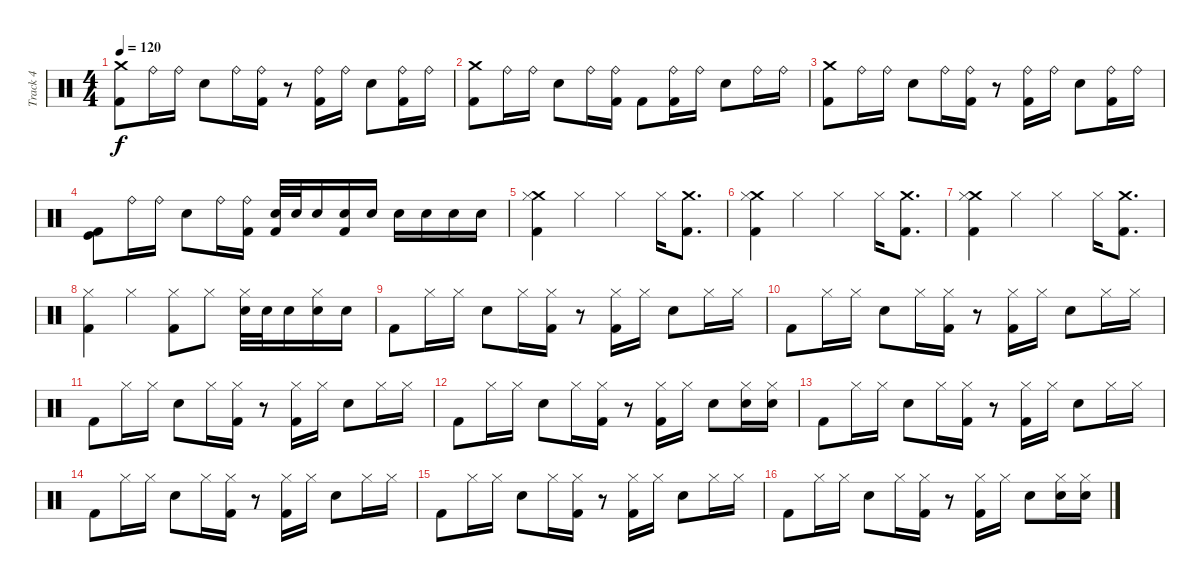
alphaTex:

\track ("Track 4" "Track 4") {instrument percussion}
\staff {score}
\articulation defaults
\ts (4 4)
\tempo 120
\clef neutral
\ks c
("Crash medium (hit)" "Kick (hit) 2").8{dy f} "Ride (bell)".16 "Ride (bell)".16 "Electric Snare (hit)".8 "Ride (bell)".16 ("Ride (bell)" "Kick (hit) 2").16 r.8 ("Ride (bell)" "Kick (hit) 2").16 "Ride (bell)".16 "Electric Snare (hit)".8 ("Ride (bell)" "Kick (hit) 2").16 "Ride (bell)".16 |
("Crash medium (hit)" "Kick (hit) 2").8 "Ride (bell)".16 "Ride (bell)".16 "Electric Snare (hit)".8 "Ride (bell)".16 ("Ride (bell)" "Kick (hit) 2").16 "Kick (hit) 2".8 ("Ride (bell)" "Kick (hit) 2").16 "Ride (bell)".16 "Electric Snare (hit)".8 "Ride (bell)".16 "Ride (bell)".16 |
("Crash medium (hit)" "Kick (hit) 2").8 "Ride (bell)".16 "Ride (bell)".16 "Electric Snare (hit)".8 "Ride (bell)".16 ("Ride (bell)" "Kick (hit) 2").16 r.8 ("Ride (bell)" "Kick (hit) 2").16 "Ride (bell)".16 "Electric Snare (hit)".8 ("Ride (bell)" "Kick (hit) 2").16 "Ride (bell)".16 |
("Kick (hit)" "Kick (hit) 2").8 "Ride (bell)".16 "Ride (bell)".16 "Electric Snare (hit)".8 "Ride (bell)".16 ("Ride (bell)" "Kick (hit) 2").16 ("Electric Snare (hit)" "Kick (hit) 2").32 "Electric Snare (hit)".32 "Electric Snare (hit)".16 ("Electric Snare (hit)" "Kick (hit) 2").16 "Electric Snare (hit)".16 "Electric Snare (hit)".16 "Electric Snare (hit)".16 "Electric Snare (hit)".16 "Electric Snare (hit)".16 |
("Crash medium (hit)" "Hi-Hat (closed)" "Kick (hit) 2").4 "Hi-Hat (closed)".4 "Hi-Hat (closed)".4 "Hi-Hat (closed)".16 ("Crash medium (hit)" "Kick (hit) 2").8{d} |
("Crash medium (hit)" "Hi-Hat (closed)" "Kick (hit) 2").4 "Hi-Hat (closed)".4 "Hi-Hat (closed)".4 "Hi-Hat (closed)".16 ("Crash medium (hit)" "Kick (hit) 2").8{d} |
("Crash medium (hit)" "Hi-Hat (closed)" "Kick (hit) 2").4 "Hi-Hat (closed)".4 "Hi-Hat (closed)".4 "Hi-Hat (closed)".16 ("Crash medium (hit)" "Kick (hit) 2").8{d} |
("Hi-Hat (closed)" "Kick (hit) 2").4 "Hi-Hat (closed)".4 ("Hi-Hat (closed)" "Kick (hit) 2").8 "Hi-Hat (closed)".8 ("Hi-Hat (closed)" "Electric Snare (hit)").32 "Electric Snare (hit)".32 "Electric Snare (hit)".16 ("Hi-Hat (closed)" "Electric Snare (hit)").16 "Electric Snare (hit)".16 |
"Kick (hit) 2".8 "Hi-Hat (closed)".16 "Hi-Hat (closed)".16 "Electric Snare (hit)".8 "Hi-Hat (closed)".16 ("Hi-Hat (closed)" "Kick (hit) 2").16 r.8 ("Hi-Hat (closed)" "Kick (hit) 2").16 "Hi-Hat (closed)".16 "Electric Snare (hit)".8 "Hi-Hat (closed)".16 "Hi-Hat (closed)".16 |
"Kick (hit) 2".8 "Hi-Hat (closed)".16 "Hi-Hat (closed)".16 "Electric Snare (hit)".8 "Hi-Hat (closed)".16 ("Hi-Hat (closed)" "Kick (hit) 2").16 r.8 ("Hi-Hat (closed)" "Kick (hit) 2").16 "Hi-Hat (closed)".16 "Electric Snare (hit)".8 "Hi-Hat (closed)".16 "Hi-Hat (closed)".16 |
"Kick (hit) 2".8 "Hi-Hat (closed)".16 "Hi-Hat (closed)".16 "Electric Snare (hit)".8 "Hi-Hat (closed)".16 ("Hi-Hat (closed)" "Kick (hit) 2").16 r.8 ("Hi-Hat (closed)" "Kick (hit) 2").16 "Hi-Hat (closed)".16 "Electric Snare (hit)".8 "Hi-Hat (closed)".16 "Hi-Hat (closed)".16 |
"Kick (hit) 2".8 "Hi-Hat (closed)".16 "Hi-Hat (closed)".16 "Electric Snare (hit)".8 "Hi-Hat (closed)".16 ("Hi-Hat (closed)" "Kick (hit) 2").16 r.8 ("Hi-Hat (closed)" "Kick (hit) 2").16 "Hi-Hat (closed)".16 "Electric Snare (hit)".8 ("Hi-Hat (closed)" "Electric Snare (hit)").16 ("Hi-Hat (closed)" "Electric Snare (hit)").16 |
"Kick (hit) 2".8 "Hi-Hat (closed)".16 "Hi-Hat (closed)".16 "Electric Snare (hit)".8 "Hi-Hat (closed)".16 ("Hi-Hat (closed)" "Kick (hit) 2").16 r.8 ("Hi-Hat (closed)" "Kick (hit) 2").16 "Hi-Hat (closed)".16 "Electric Snare (hit)".8 "Hi-Hat (closed)".16 "Hi-Hat (closed)".16 |
"Kick (hit) 2".8 "Hi-Hat (closed)".16 "Hi-Hat (closed)".16 "Electric Snare (hit)".8 "Hi-Hat (closed)".16 ("Hi-Hat (closed)" "Kick (hit) 2").16 r.8 ("Hi-Hat (closed)" "Kick (hit) 2").16 "Hi-Hat (closed)".16 "Electric Snare (hit)".8 "Hi-Hat (closed)".16 "Hi-Hat (closed)".16 |
"Kick (hit) 2".8 "Hi-Hat (closed)".16 "Hi-Hat (closed)".16 "Electric Snare (hit)".8 "Hi-Hat (closed)".16 ("Hi-Hat (closed)" "Kick (hit) 2").16 r.8 ("Hi-Hat (closed)" "Kick (hit) 2").16 "Hi-Hat (closed)".16 "Electric Snare (hit)".8 "Hi-Hat (closed)".16 "Hi-Hat (closed)".16 |
"Kick (hit) 2".8 "Hi-Hat (closed)".16 "Hi-Hat (closed)".16 "Electric Snare (hit)".8 "Hi-Hat (closed)".16 ("Hi-Hat (closed)" "Kick (hit) 2").16 r.8 ("Hi-Hat (closed)" "Kick (hit) 2").16 "Hi-Hat (closed)".16 "Electric Snare (hit)".8 ("Hi-Hat (closed)" "Electric Snare (hit)").16 ("Hi-Hat (closed)" "Electric Snare (hit)").16
